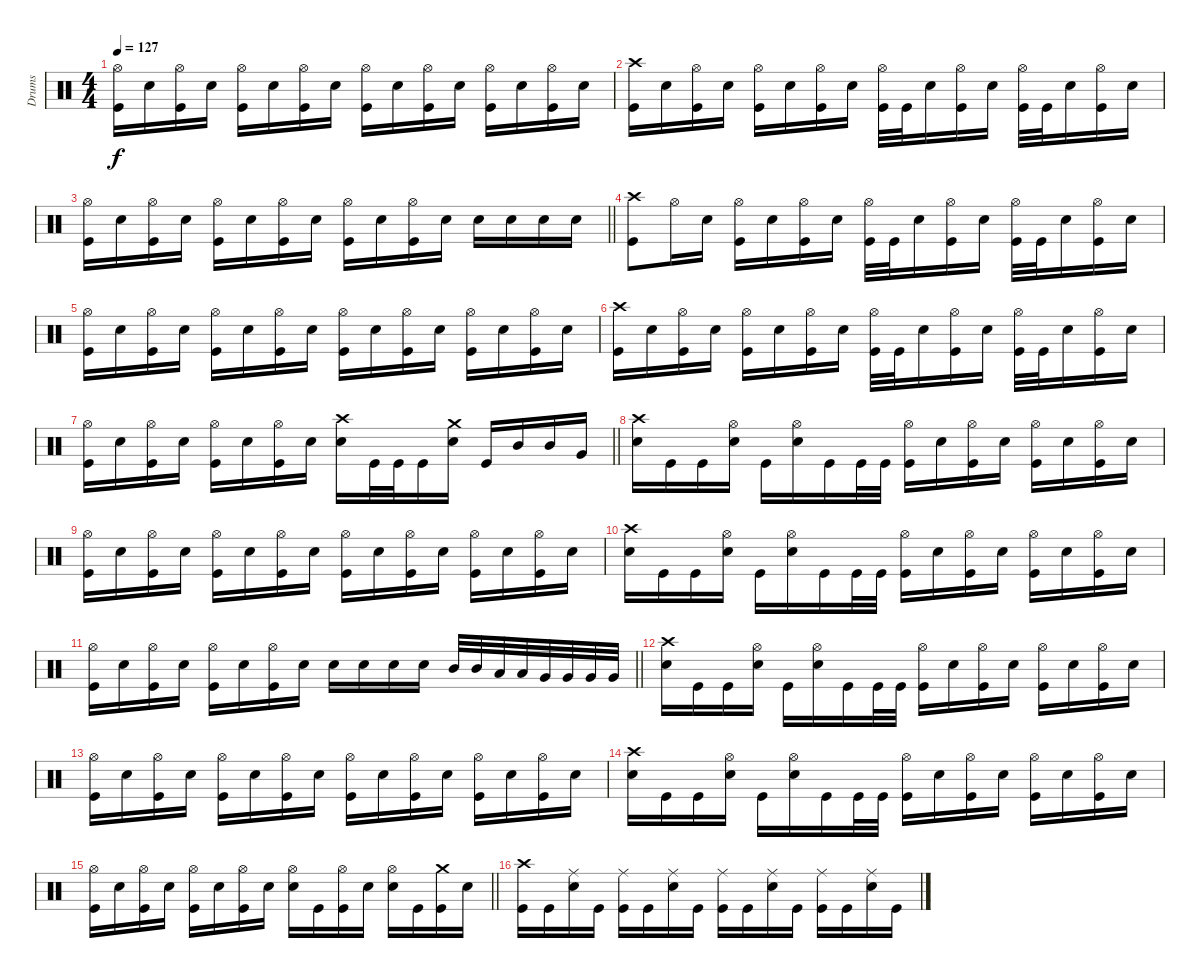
\track ("Drums" "Drums") {instrument percussion}
\staff
\articulation defaults
\ts (4 4)
\tempo 127
\clef neutral
\ks c
("Hi-Hat (open)" "Kick (hit)").16{dy f} "Electric Snare (hit)".16 ("Hi-Hat (open)" "Kick (hit)").16 "Electric Snare (hit)".16 ("Hi-Hat (open)" "Kick (hit)").16 "Electric Snare (hit)".16 ("Hi-Hat (open)" "Kick (hit)").16 "Electric Snare (hit)".16 ("Hi-Hat (open)" "Kick (hit)").16 "Electric Snare (hit)".16 ("Hi-Hat (open)" "Kick (hit)").16 "Electric Snare (hit)".16 ("Hi-Hat (open)" "Kick (hit)").16 "Electric Snare (hit)".16 ("Hi-Hat (open)" "Kick (hit)").16 "Electric Snare (hit)".16 |
("Crash high (hit)" "Kick (hit)").16 "Electric Snare (hit)".16 ("Hi-Hat (open)" "Kick (hit)").16 "Electric Snare (hit)".16 ("Hi-Hat (open)" "Kick (hit)").16 "Electric Snare (hit)".16 ("Hi-Hat (open)" "Kick (hit)").16 "Electric Snare (hit)".16 ("Hi-Hat (open)" "Kick (hit)").32 "Kick (hit)".32 "Electric Snare (hit)".16 ("Hi-Hat (open)" "Kick (hit)").16 "Electric Snare (hit)".16 ("Hi-Hat (open)" "Kick (hit)").32 "Kick (hit)".32 "Electric Snare (hit)".16 ("Hi-Hat (open)" "Kick (hit)").16 "Electric Snare (hit)".16 |
\barLineRight lightlight
("Hi-Hat (open)" "Kick (hit)").16 "Electric Snare (hit)".16 ("Hi-Hat (open)" "Kick (hit)").16 "Electric Snare (hit)".16 ("Hi-Hat (open)" "Kick (hit)").16 "Electric Snare (hit)".16 ("Hi-Hat (open)" "Kick (hit)").16 "Electric Snare (hit)".16 ("Hi-Hat (open)" "Kick (hit)").16 "Electric Snare (hit)".16 ("Hi-Hat (open)" "Kick (hit)").16 "Electric Snare (hit)".16 "Electric Snare (hit)".16 "Electric Snare (hit)".16 "Electric Snare (hit)".16 "Electric Snare (hit)".16 |
("Crash high (hit)" "Kick (hit)").8 "Hi-Hat (open)".16 "Electric Snare (hit)".16 ("Hi-Hat (open)" "Kick (hit)").16 "Electric Snare (hit)".16 ("Hi-Hat (open)" "Kick (hit)").16 "Electric Snare (hit)".16 ("Hi-Hat (open)" "Kick (hit)").32 "Kick (hit)".32 "Electric Snare (hit)".16 ("Hi-Hat (open)" "Kick (hit)").16 "Electric Snare (hit)".16 ("Hi-Hat (open)" "Kick (hit)").32 "Kick (hit)".32 "Electric Snare (hit)".16 ("Hi-Hat (open)" "Kick (hit)").16 "Electric Snare (hit)".16 |
("Hi-Hat (open)" "Kick (hit)").16 "Electric Snare (hit)".16 ("Hi-Hat (open)" "Kick (hit)").16 "Electric Snare (hit)".16 ("Hi-Hat (open)" "Kick (hit)").16 "Electric Snare (hit)".16 ("Hi-Hat (open)" "Kick (hit)").16 "Electric Snare (hit)".16 ("Hi-Hat (open)" "Kick (hit)").16 "Electric Snare (hit)".16 ("Hi-Hat (open)" "Kick (hit)").16 "Electric Snare (hit)".16 ("Hi-Hat (open)" "Kick (hit)").16 "Electric Snare (hit)".16 ("Hi-Hat (open)" "Kick (hit)").16 "Electric Snare (hit)".16 |
("Crash high (hit)" "Kick (hit)").16 "Electric Snare (hit)".16 ("Hi-Hat (open)" "Kick (hit)").16 "Electric Snare (hit)".16 ("Hi-Hat (open)" "Kick (hit)").16 "Electric Snare (hit)".16 ("Hi-Hat (open)" "Kick (hit)").16 "Electric Snare (hit)".16 ("Hi-Hat (open)" "Kick (hit)").32 "Kick (hit)".32 "Electric Snare (hit)".16 ("Hi-Hat (open)" "Kick (hit)").16 "Electric Snare (hit)".16 ("Hi-Hat (open)" "Kick (hit)").32 "Kick (hit)".32 "Electric Snare (hit)".16 ("Hi-Hat (open)" "Kick (hit)").16 "Electric Snare (hit)".16 |
\barLineRight lightlight
("Hi-Hat (open)" "Kick (hit)").16 "Electric Snare (hit)".16 ("Hi-Hat (open)" "Kick (hit)").16 "Electric Snare (hit)".16 ("Hi-Hat (open)" "Kick (hit)").16 "Electric Snare (hit)".16 ("Hi-Hat (open)" "Kick (hit)").16 "Electric Snare (hit)".16 ("Crash high (hit)" "Electric Snare (hit)").16 "Kick (hit)".32 "Kick (hit)".32 "Kick (hit)".16 ("Crash medium (hit)" "Electric Snare (hit)").16 "Kick (hit)".16 "Mid Tom (hit)".16 "Mid Tom (hit)".16 "Very Low Tom (hit)".16 |
("Crash high (hit)" "Electric Snare (hit)").16 "Kick (hit)".16 "Kick (hit)".16 ("Hi-Hat (open)" "Electric Snare (hit)").16 "Kick (hit)".16 ("Hi-Hat (open)" "Electric Snare (hit)").16 "Kick (hit)".16 "Kick (hit)".32 "Kick (hit)".32 ("Hi-Hat (open)" "Kick (hit)").16 "Electric Snare (hit)".16 ("Hi-Hat (open)" "Kick (hit)").16 "Electric Snare (hit)".16 ("Hi-Hat (open)" "Kick (hit)").16 "Electric Snare (hit)".16 ("Hi-Hat (open)" "Kick (hit)").16 "Electric Snare (hit)".16 |
("Hi-Hat (open)" "Kick (hit)").16 "Electric Snare (hit)".16 ("Hi-Hat (open)" "Kick (hit)").16 "Electric Snare (hit)".16 ("Hi-Hat (open)" "Kick (hit)").16 "Electric Snare (hit)".16 ("Hi-Hat (open)" "Kick (hit)").16 "Electric Snare (hit)".16 ("Hi-Hat (open)" "Kick (hit)").16 "Electric Snare (hit)".16 ("Hi-Hat (open)" "Kick (hit)").16 "Electric Snare (hit)".16 ("Hi-Hat (open)" "Kick (hit)").16 "Electric Snare (hit)".16 ("Hi-Hat (open)" "Kick (hit)").16 "Electric Snare (hit)".16 |
("Crash high (hit)" "Electric Snare (hit)").16 "Kick (hit)".16 "Kick (hit)".16 ("Hi-Hat (open)" "Electric Snare (hit)").16 "Kick (hit)".16 ("Hi-Hat (open)" "Electric Snare (hit)").16 "Kick (hit)".16 "Kick (hit)".32 "Kick (hit)".32 ("Hi-Hat (open)" "Kick (hit)").16 "Electric Snare (hit)".16 ("Hi-Hat (open)" "Kick (hit)").16 "Electric Snare (hit)".16 ("Hi-Hat (open)" "Kick (hit)").16 "Electric Snare (hit)".16 ("Hi-Hat (open)" "Kick (hit)").16 "Electric Snare (hit)".16 |
\barLineRight lightlight
("Hi-Hat (open)" "Kick (hit)").16 "Electric Snare (hit)".16 ("Hi-Hat (open)" "Kick (hit)").16 "Electric Snare (hit)".16 ("Hi-Hat (open)" "Kick (hit)").16 "Electric Snare (hit)".16 ("Hi-Hat (open)" "Kick (hit)").16 "Electric Snare (hit)".16 "Electric Snare (hit)".16 "Electric Snare (hit)".16 "Electric Snare (hit)".16 "Electric Snare (hit)".16 "Mid Tom (hit)".32 "Mid Tom (hit)".32 "Low Tom (hit)".32 "Low Tom (hit)".32 "Very Low Tom (hit)".32 "Very Low Tom (hit)".32 "Very Low Tom (hit)".32 "Very Low Tom (hit)".32 |
("Crash high (hit)" "Electric Snare (hit)").16 "Kick (hit)".16 "Kick (hit)".16 ("Hi-Hat (open)" "Electric Snare (hit)").16 "Kick (hit)".16 ("Hi-Hat (open)" "Electric Snare (hit)").16 "Kick (hit)".16 "Kick (hit)".32 "Kick (hit)".32 ("Hi-Hat (open)" "Kick (hit)").16 "Electric Snare (hit)".16 ("Hi-Hat (open)" "Kick (hit)").16 "Electric Snare (hit)".16 ("Hi-Hat (open)" "Kick (hit)").16 "Electric Snare (hit)".16 ("Hi-Hat (open)" "Kick (hit)").16 "Electric Snare (hit)".16 |
("Hi-Hat (open)" "Kick (hit)").16 "Electric Snare (hit)".16 ("Hi-Hat (open)" "Kick (hit)").16 "Electric Snare (hit)".16 ("Hi-Hat (open)" "Kick (hit)").16 "Electric Snare (hit)".16 ("Hi-Hat (open)" "Kick (hit)").16 "Electric Snare (hit)".16 ("Hi-Hat (open)" "Kick (hit)").16 "Electric Snare (hit)".16 ("Hi-Hat (open)" "Kick (hit)").16 "Electric Snare (hit)".16 ("Hi-Hat (open)" "Kick (hit)").16 "Electric Snare (hit)".16 ("Hi-Hat (open)" "Kick (hit)").16 "Electric Snare (hit)".16 |
("Crash high (hit)" "Electric Snare (hit)").16 "Kick (hit)".16 "Kick (hit)".16 ("Hi-Hat (open)" "Electric Snare (hit)").16 "Kick (hit)".16 ("Hi-Hat (open)" "Electric Snare (hit)").16 "Kick (hit)".16 "Kick (hit)".32 "Kick (hit)".32 ("Hi-Hat (open)" "Kick (hit)").16 "Electric Snare (hit)".16 ("Hi-Hat (open)" "Kick (hit)").16 "Electric Snare (hit)".16 ("Hi-Hat (open)" "Kick (hit)").16 "Electric Snare (hit)".16 ("Hi-Hat (open)" "Kick (hit)").16 "Electric Snare (hit)".16 |
\barLineRight lightlight
("Hi-Hat (open)" "Kick (hit)").16 "Electric Snare (hit)".16 ("Hi-Hat (open)" "Kick (hit)").16 "Electric Snare (hit)".16 ("Hi-Hat (open)" "Kick (hit)").16 "Electric Snare (hit)".16 ("Hi-Hat (open)" "Kick (hit)").16 "Electric Snare (hit)".16 ("Hi-Hat (open)" "Electric Snare (hit)").16 "Kick (hit)".16 ("Hi-Hat (open)" "Kick (hit)").16 "Electric Snare (hit)".16 ("Hi-Hat (open)" "Electric Snare (hit)").16 "Kick (hit)".16 ("Crash medium (hit)" "Kick (hit)").16 "Electric Snare (hit)".16 |
\section ("" "")
("Crash high (hit)" "Kick (hit)").16 "Kick (hit)".16 ("Ride (middle)" "Electric Snare (hit)").16 "Kick (hit)".16 ("Ride (middle)" "Kick (hit)").16 "Kick (hit)".16 ("Ride (middle)" "Electric Snare (hit)").16 "Kick (hit)".16 ("Ride (middle)" "Kick (hit)").16 "Kick (hit)".16 ("Ride (middle)" "Electric Snare (hit)").16 "Kick (hit)".16 ("Ride (middle)" "Kick (hit)").16 "Kick (hit)".16 ("Ride (middle)" "Electric Snare (hit)").16 "Kick (hit)".16
